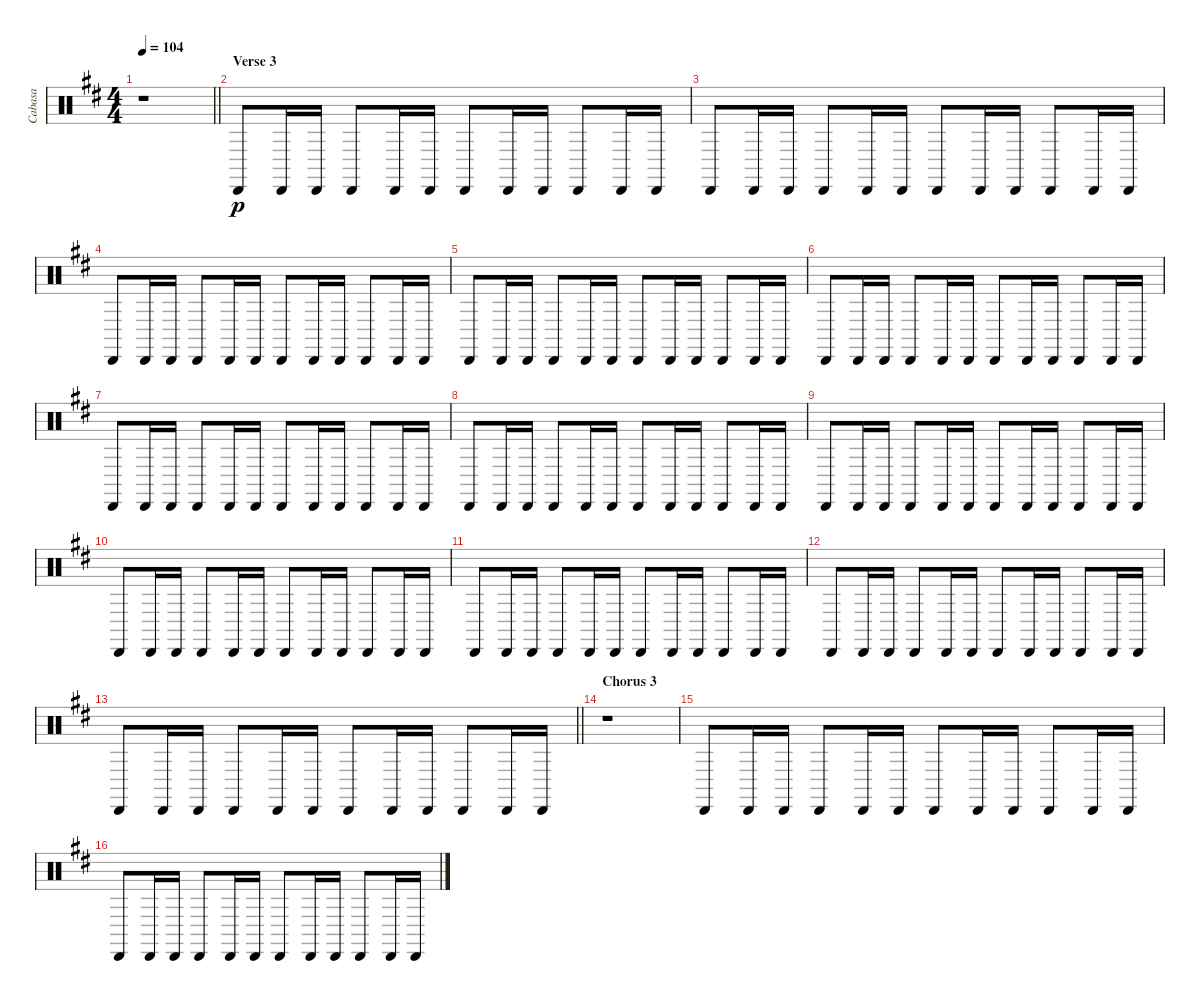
\track ("Cabasa" "Cabasa") {instrument percussion}
\staff {score}
\articulation defaults
\ts (4 4)
\tempo 104
\clef neutral
\barLineRight lightlight
\ks bminor
r.1{dy p} |
\section ("" "Verse 3")
"Cabasa (hit)".8 "Cabasa (hit)".16 "Cabasa (hit)".16 "Cabasa (hit)".8 "Cabasa (hit)".16 "Cabasa (hit)".16 "Cabasa (hit)".8 "Cabasa (hit)".16 "Cabasa (hit)".16 "Cabasa (hit)".8 "Cabasa (hit)".16 "Cabasa (hit)".16 |
"Cabasa (hit)".8 "Cabasa (hit)".16 "Cabasa (hit)".16 "Cabasa (hit)".8 "Cabasa (hit)".16 "Cabasa (hit)".16 "Cabasa (hit)".8 "Cabasa (hit)".16 "Cabasa (hit)".16 "Cabasa (hit)".8 "Cabasa (hit)".16 "Cabasa (hit)".16 |
"Cabasa (hit)".8 "Cabasa (hit)".16 "Cabasa (hit)".16 "Cabasa (hit)".8 "Cabasa (hit)".16 "Cabasa (hit)".16 "Cabasa (hit)".8 "Cabasa (hit)".16 "Cabasa (hit)".16 "Cabasa (hit)".8 "Cabasa (hit)".16 "Cabasa (hit)".16 |
"Cabasa (hit)".8 "Cabasa (hit)".16 "Cabasa (hit)".16 "Cabasa (hit)".8 "Cabasa (hit)".16 "Cabasa (hit)".16 "Cabasa (hit)".8 "Cabasa (hit)".16 "Cabasa (hit)".16 "Cabasa (hit)".8 "Cabasa (hit)".16 "Cabasa (hit)".16 |
"Cabasa (hit)".8 "Cabasa (hit)".16 "Cabasa (hit)".16 "Cabasa (hit)".8 "Cabasa (hit)".16 "Cabasa (hit)".16 "Cabasa (hit)".8 "Cabasa (hit)".16 "Cabasa (hit)".16 "Cabasa (hit)".8 "Cabasa (hit)".16 "Cabasa (hit)".16 |
"Cabasa (hit)".8 "Cabasa (hit)".16 "Cabasa (hit)".16 "Cabasa (hit)".8 "Cabasa (hit)".16 "Cabasa (hit)".16 "Cabasa (hit)".8 "Cabasa (hit)".16 "Cabasa (hit)".16 "Cabasa (hit)".8 "Cabasa (hit)".16 "Cabasa (hit)".16 |
"Cabasa (hit)".8 "Cabasa (hit)".16 "Cabasa (hit)".16 "Cabasa (hit)".8 "Cabasa (hit)".16 "Cabasa (hit)".16 "Cabasa (hit)".8 "Cabasa (hit)".16 "Cabasa (hit)".16 "Cabasa (hit)".8 "Cabasa (hit)".16 "Cabasa (hit)".16 |
"Cabasa (hit)".8 "Cabasa (hit)".16 "Cabasa (hit)".16 "Cabasa (hit)".8 "Cabasa (hit)".16 "Cabasa (hit)".16 "Cabasa (hit)".8 "Cabasa (hit)".16 "Cabasa (hit)".16 "Cabasa (hit)".8 "Cabasa (hit)".16 "Cabasa (hit)".16 |
"Cabasa (hit)".8 "Cabasa (hit)".16 "Cabasa (hit)".16 "Cabasa (hit)".8 "Cabasa (hit)".16 "Cabasa (hit)".16 "Cabasa (hit)".8 "Cabasa (hit)".16 "Cabasa (hit)".16 "Cabasa (hit)".8 "Cabasa (hit)".16 "Cabasa (hit)".16 |
"Cabasa (hit)".8 "Cabasa (hit)".16 "Cabasa (hit)".16 "Cabasa (hit)".8 "Cabasa (hit)".16 "Cabasa (hit)".16 "Cabasa (hit)".8 "Cabasa (hit)".16 "Cabasa (hit)".16 "Cabasa (hit)".8 "Cabasa (hit)".16 "Cabasa (hit)".16 |
"Cabasa (hit)".8 "Cabasa (hit)".16 "Cabasa (hit)".16 "Cabasa (hit)".8 "Cabasa (hit)".16 "Cabasa (hit)".16 "Cabasa (hit)".8 "Cabasa (hit)".16 "Cabasa (hit)".16 "Cabasa (hit)".8 "Cabasa (hit)".16 "Cabasa (hit)".16 |
\barLineRight lightlight "Cabasa (hit)".8 "Cabasa (hit)".16 "Cabasa (hit)".16 "Cabasa (hit)".8 "Cabasa (hit)".16 "Cabasa (hit)".16 "Cabasa (hit)".8 "Cabasa (hit)".16 "Cabasa (hit)".16 "Cabasa (hit)".8 "Cabasa (hit)".16 "Cabasa (hit)".16
|
\section ("" "Chorus 3")
r.1 |
"Cabasa (hit)".8 "Cabasa (hit)".16 "Cabasa (hit)".16 "Cabasa (hit)".8 "Cabasa (hit)".16 "Cabasa (hit)".16 "Cabasa (hit)".8 "Cabasa (hit)".16 "Cabasa (hit)".16 "Cabasa (hit)".8 "Cabasa (hit)".16 "Cabasa (hit)".16 |
"Cabasa (hit)".8 "Cabasa (hit)".16 "Cabasa (hit)".16 "Cabasa (hit)".8 "Cabasa (hit)".16 "Cabasa (hit)".16 "Cabasa (hit)".8 "Cabasa (hit)".16 "Cabasa (hit)".16 "Cabasa (hit)".8 "Cabasa (hit)".16 "Cabasa (hit)".16
